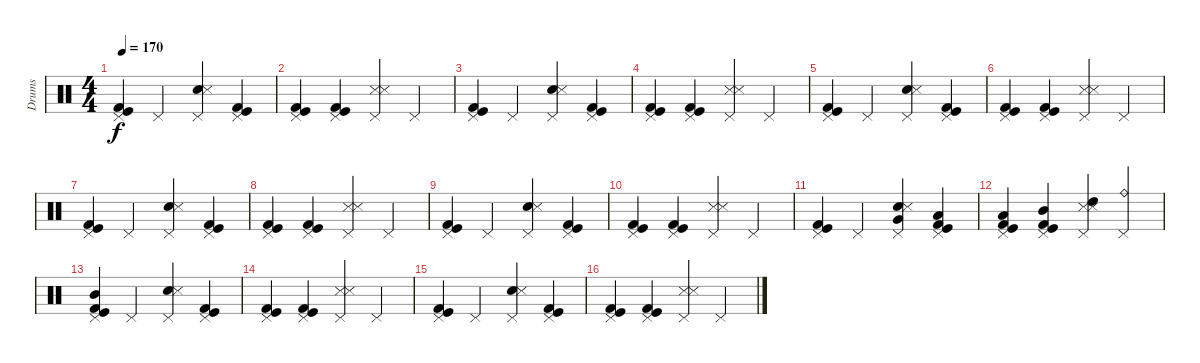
\track ("Drums" "Drums") {instrument percussion}
\staff {score}
\articulation defaults
\ts (4 4)
\tempo 170
\clef neutral
\ks c
("Pedal Hi-Hat (hit)" "Kick (hit)" "Kick (hit) 2").4{dy f} "Pedal Hi-Hat (hit)".4 ("Pedal Hi-Hat (hit)" "Snare (hit) 2" "Snare (side stick) 3").4 ("Pedal Hi-Hat (hit)" "Kick (hit)" "Kick (hit) 2").4 |
("Pedal Hi-Hat (hit)" "Kick (hit)" "Kick (hit) 2").4 ("Pedal Hi-Hat (hit)" "Kick (hit)" "Kick (hit) 2").4 ("Pedal Hi-Hat (hit)" "Snare (side stick) 3" "Snare (side stick) 3").4 "Pedal Hi-Hat (hit)".4 |
("Pedal Hi-Hat (hit)" "Kick (hit)" "Kick (hit) 2").4 "Pedal Hi-Hat (hit)".4 ("Pedal Hi-Hat (hit)" "Snare (hit) 2" "Snare (side stick) 3").4 ("Pedal Hi-Hat (hit)" "Kick (hit)" "Kick (hit) 2").4 |
("Pedal Hi-Hat (hit)" "Kick (hit)" "Kick (hit) 2").4 ("Pedal Hi-Hat (hit)" "Kick (hit)" "Kick (hit) 2").4 ("Pedal Hi-Hat (hit)" "Snare (side stick) 3" "Snare (side stick) 3").4 "Pedal Hi-Hat (hit)".4 |
("Pedal Hi-Hat (hit)" "Kick (hit)" "Kick (hit) 2").4 "Pedal Hi-Hat (hit)".4 ("Pedal Hi-Hat (hit)" "Snare (hit) 2" "Snare (side stick) 3").4 ("Pedal Hi-Hat (hit)" "Kick (hit)" "Kick (hit) 2").4 |
("Pedal Hi-Hat (hit)" "Kick (hit)" "Kick (hit) 2").4 ("Pedal Hi-Hat (hit)" "Kick (hit)" "Kick (hit) 2").4 ("Pedal Hi-Hat (hit)" "Snare (side stick) 3" "Snare (side stick) 3").4 "Pedal Hi-Hat (hit)".4 |
("Pedal Hi-Hat (hit)" "Kick (hit)" "Kick (hit) 2").4 "Pedal Hi-Hat (hit)".4 ("Pedal Hi-Hat (hit)" "Snare (hit) 2" "Snare (side stick) 3").4 ("Pedal Hi-Hat (hit)" "Kick (hit)" "Kick (hit) 2").4 |
("Pedal Hi-Hat (hit)" "Kick (hit)" "Kick (hit) 2").4 ("Pedal Hi-Hat (hit)" "Kick (hit)" "Kick (hit) 2").4 ("Pedal Hi-Hat (hit)" "Snare (side stick) 3" "Snare (side stick) 3").4 "Pedal Hi-Hat (hit)".4 |
("Pedal Hi-Hat (hit)" "Kick (hit)" "Kick (hit) 2").4 "Pedal Hi-Hat (hit)".4 ("Pedal Hi-Hat (hit)" "Snare (hit) 2" "Snare (side stick) 3").4 ("Pedal Hi-Hat (hit)" "Kick (hit)" "Kick (hit) 2").4 |
("Pedal Hi-Hat (hit)" "Kick (hit)" "Kick (hit) 2").4 ("Pedal Hi-Hat (hit)" "Kick (hit)" "Kick (hit) 2").4 ("Pedal Hi-Hat (hit)" "Snare (side stick) 3" "Snare (side stick) 3").4 "Pedal Hi-Hat (hit)".4 |
("Pedal Hi-Hat (hit)" "Kick (hit)" "Kick (hit) 2").4 "Pedal Hi-Hat (hit)".4 ("Pedal Hi-Hat (hit)" "Very Low Tom (hit)" "Snare (hit) 2" "Snare (side stick) 3").4 ("Pedal Hi-Hat (hit)" "Low Tom (hit)" "Kick (hit)" "Kick (hit) 2").4 |
("Pedal Hi-Hat (hit)" "Low Tom (hit)" "Kick (hit)" "Kick (hit) 2").4 ("Pedal Hi-Hat (hit)" "Mid Tom (hit)" "Kick (hit)" "Kick (hit) 2").4 ("Pedal Hi-Hat (hit)" "High Tom (hit)" "Snare (side stick) 3" "Snare (side stick) 3").4 ("Pedal Hi-Hat (hit)" "Ride (bell)").4 |
("Pedal Hi-Hat (hit)" "Mid Tom (hit)" "Kick (hit)" "Kick (hit) 2").4 "Pedal Hi-Hat (hit)".4 ("Pedal Hi-Hat (hit)" "Snare (hit) 2" "Snare (side stick) 3").4 ("Pedal Hi-Hat (hit)" "Kick (hit)" "Kick (hit) 2").4 |
("Pedal Hi-Hat (hit)" "Kick (hit)" "Kick (hit) 2").4 ("Pedal Hi-Hat (hit)" "Kick (hit)" "Kick (hit) 2").4 ("Pedal Hi-Hat (hit)" "Snare (side stick) 3" "Snare (side stick) 3").4 "Pedal Hi-Hat (hit)".4 |
("Pedal Hi-Hat (hit)" "Kick (hit)" "Kick (hit) 2").4 "Pedal Hi-Hat (hit)".4 ("Pedal Hi-Hat (hit)" "Snare (hit) 2" "Snare (side stick) 3").4 ("Pedal Hi-Hat (hit)" "Kick (hit)" "Kick (hit) 2").4 |
("Pedal Hi-Hat (hit)" "Kick (hit)" "Kick (hit) 2").4 ("Pedal Hi-Hat (hit)" "Kick (hit)" "Kick (hit) 2").4 ("Pedal Hi-Hat (hit)" "Snare (side stick) 3" "Snare (side stick) 3").4 "Pedal Hi-Hat (hit)".4
